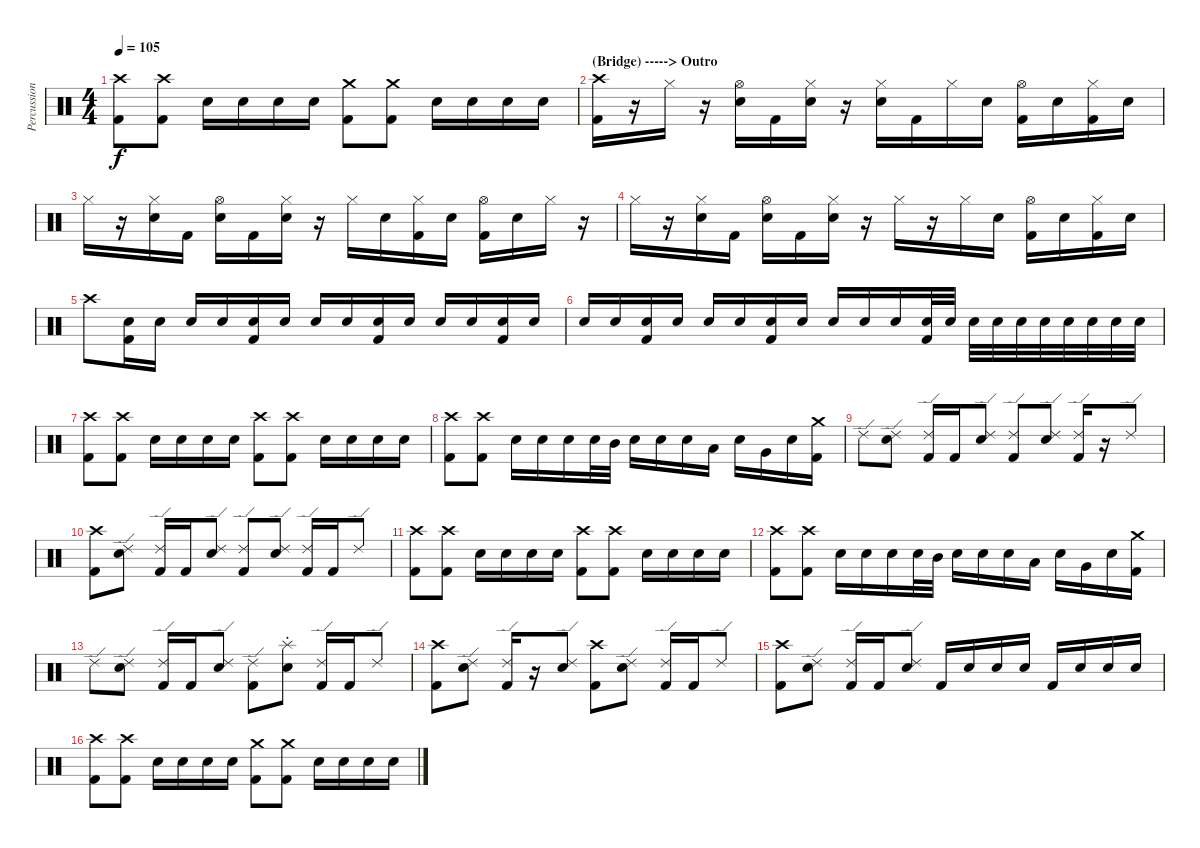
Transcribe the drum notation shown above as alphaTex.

\track ("Percussion" "Percussion") {instrument percussion}
\staff {score}
\articulation defaults
\ts (4 4)
\tempo 105
\clef neutral
\ks c
("Crash high (hit)" "Kick (hit) 2").8{dy f} ("Crash high (hit)" "Kick (hit) 2").8 "Electric Snare (hit)".16 "Electric Snare (hit)".16 "Electric Snare (hit)".16 "Electric Snare (hit)".16 ("Crash medium (hit)" "Kick (hit) 2").8 ("Crash medium (hit)" "Kick (hit) 2").8 "Electric Snare (hit)".16 "Electric Snare (hit)".16 "Electric Snare (hit)".16 "Electric Snare (hit)".16 |
\section ("" "(Bridge) -----> Outro")
("Crash high (hit)" "Kick (hit) 2").16 r.16 "Hi-Hat (closed)".16 r.16 ("Hi-Hat (open)" "Electric Snare (hit)").16 "Kick (hit) 2".16 ("Hi-Hat (closed)" "Electric Snare (hit)").16 r.16 ("Hi-Hat (closed)" "Electric Snare (hit)").16 "Kick (hit) 2".16 "Hi-Hat (closed)".16 "Electric Snare (hit)".16 ("Hi-Hat (open)" "Kick (hit) 2").16 "Electric Snare (hit)".16 ("Hi-Hat (closed)" "Kick (hit) 2").16 "Electric Snare (hit)".16 |
"Hi-Hat (closed)".16 r.16 ("Hi-Hat (closed)" "Electric Snare (hit)").16 "Kick (hit) 2".16 ("Hi-Hat (open)" "Electric Snare (hit)").16 "Kick (hit) 2".16 ("Hi-Hat (closed)" "Electric Snare (hit)").16 r.16 "Hi-Hat (closed)".16 "Electric Snare (hit)".16 ("Hi-Hat (closed)" "Kick (hit) 2").16 "Electric Snare (hit)".16 ("Hi-Hat (open)" "Kick (hit) 2").16 "Electric Snare (hit)".16 "Hi-Hat (closed)".16 r.16 |
"Hi-Hat (closed)".16 r.16 ("Hi-Hat (closed)" "Electric Snare (hit)").16 "Kick (hit) 2".16 ("Hi-Hat (open)" "Electric Snare (hit)").16 "Kick (hit) 2".16 ("Hi-Hat (closed)" "Electric Snare (hit)").16 r.16 "Hi-Hat (closed)".16 r.16 "Hi-Hat (closed)".16 "Electric Snare (hit)".16 ("Hi-Hat (open)" "Kick (hit) 2").16 "Electric Snare (hit)".16 ("Hi-Hat (closed)" "Kick (hit) 2").16 "Electric Snare (hit)".16 |
"Crash high (hit)".8 ("Electric Snare (hit)" "Kick (hit) 2").16 "Electric Snare (hit)".16 "Electric Snare (hit)".16 "Electric Snare (hit)".16 ("Electric Snare (hit)" "Kick (hit) 2").16 "Electric Snare (hit)".16 "Electric Snare (hit)".16 "Electric Snare (hit)".16 ("Electric Snare (hit)" "Kick (hit) 2").16 "Electric Snare (hit)".16 "Electric Snare (hit)".16 "Electric Snare (hit)".16 ("Electric Snare (hit)" "Kick (hit) 2").16 "Electric Snare (hit)".16 |
"Electric Snare (hit)".16 "Electric Snare (hit)".16 ("Electric Snare (hit)" "Kick (hit) 2").16 "Electric Snare (hit)".16 "Electric Snare (hit)".16 "Electric Snare (hit)".16 ("Electric Snare (hit)" "Kick (hit) 2").16 "Electric Snare (hit)".16 "Electric Snare (hit)".16 "Electric Snare (hit)".16 "Electric Snare (hit)".16 ("Electric Snare (hit)" "Kick (hit) 2").32 "Electric Snare (hit)".32 "Electric Snare (hit)".32 "Electric Snare (hit)".32 "Electric Snare (hit)".32 "Electric Snare (hit)".32 "Electric Snare (hit)".32 "Electric Snare (hit)".32 "Electric Snare (hit)".32 "Electric Snare (hit)".32 |
("Crash high (hit)" "Kick (hit) 2").8 ("Crash high (hit)" "Kick (hit) 2").8 "Electric Snare (hit)".16 "Electric Snare (hit)".16 "Electric Snare (hit)".16 "Electric Snare (hit)".16 ("Crash high (hit)" "Kick (hit) 2").8 ("Crash high (hit)" "Kick (hit) 2").8 "Electric Snare (hit)".16 "Electric Snare (hit)".16 "Electric Snare (hit)".16 "Electric Snare (hit)".16 |
("Crash high (hit)" "Kick (hit) 2").8 ("Crash high (hit)" "Kick (hit) 2").8 "Electric Snare (hit)".16 "Electric Snare (hit)".16 "Electric Snare (hit)".16 "Electric Snare (hit)".32 "Mid Tom (hit)".32 "Electric Snare (hit)".16 "Electric Snare (hit)".16 "Electric Snare (hit)".16 "Low Tom (hit)".16 "Electric Snare (hit)".16 "Very Low Tom (hit)".16 "Electric Snare (hit)".16 ("Crash medium (hit)" "Kick (hit) 2").16 |
"Ride (edge) 2".8 ("Ride (edge) 2" "Electric Snare (hit)").8 ("Ride (edge) 2" "Kick (hit) 2").16 "Kick (hit) 2".16 ("Ride (edge) 2" "Electric Snare (hit)").8 ("Ride (edge) 2" "Kick (hit) 2").8 ("Ride (edge) 2" "Electric Snare (hit)").8 ("Ride (edge) 2" "Kick (hit) 2").16 r.16 "Ride (edge) 2".8 |
("Crash high (hit)" "Kick (hit) 2").8 ("Ride (edge) 2" "Electric Snare (hit)").8 ("Ride (edge) 2" "Kick (hit) 2").16 "Kick (hit) 2".16 ("Ride (edge) 2" "Electric Snare (hit)").8 ("Ride (edge) 2" "Kick (hit) 2").8 ("Ride (edge) 2" "Electric Snare (hit)").8 ("Ride (edge) 2" "Kick (hit) 2").16 "Kick (hit) 2".16 "Ride (edge) 2".8 |
("Crash high (hit)" "Kick (hit) 2").8 ("Crash high (hit)" "Kick (hit) 2").8 "Electric Snare (hit)".16 "Electric Snare (hit)".16 "Electric Snare (hit)".16 "Electric Snare (hit)".16 ("Crash high (hit)" "Kick (hit) 2").8 ("Crash high (hit)" "Kick (hit) 2").8 "Electric Snare (hit)".16 "Electric Snare (hit)".16 "Electric Snare (hit)".16 "Electric Snare (hit)".16 |
("Crash high (hit)" "Kick (hit) 2").8 ("Crash high (hit)" "Kick (hit) 2").8 "Electric Snare (hit)".16 "Electric Snare (hit)".16 "Electric Snare (hit)".16 "Electric Snare (hit)".32 "Mid Tom (hit)".32 "Electric Snare (hit)".16 "Electric Snare (hit)".16 "Electric Snare (hit)".16 "Low Tom (hit)".16 "Electric Snare (hit)".16 "Very Low Tom (hit)".16 "Electric Snare (hit)".16 ("Crash medium (hit)" "Kick (hit) 2").16 |
"Ride (edge) 2".8 ("Ride (edge) 2" "Electric Snare (hit)").8 ("Ride (edge) 2" "Kick (hit) 2").16 "Kick (hit) 2".16 ("Ride (edge) 2" "Electric Snare (hit)").8 ("Ride (edge) 2" "Kick (hit) 2").8 ("Splash (choke)" "Electric Snare (hit)").8 ("Ride (edge) 2" "Kick (hit) 2").16 "Kick (hit) 2".16 "Ride (edge) 2".8 |
("Crash high (hit)" "Kick (hit) 2").8 ("Ride (edge) 2" "Electric Snare (hit)").8 ("Ride (edge) 2" "Kick (hit) 2").16 r.16 ("Ride (edge) 2" "Electric Snare (hit)").8 ("Crash high (hit)" "Kick (hit) 2").8 ("Ride (edge) 2" "Electric Snare (hit)").8 ("Ride (edge) 2" "Kick (hit) 2").16 "Kick (hit) 2".16 "Ride (edge) 2".8 |
("Crash high (hit)" "Kick (hit) 2").8 ("Ride (edge) 2" "Electric Snare (hit)").8 ("Ride (edge) 2" "Kick (hit) 2").16 "Kick (hit) 2".16 ("Ride (edge) 2" "Electric Snare (hit)").8 "Kick (hit) 2".16 "Electric Snare (hit)".16 "Electric Snare (hit)".16 "Electric Snare (hit)".16 "Kick (hit) 2".16 "Electric Snare (hit)".16 "Electric Snare (hit)".16 "Electric Snare (hit)".16 |
("Crash high (hit)" "Kick (hit) 2").8 ("Crash high (hit)" "Kick (hit) 2").8 "Electric Snare (hit)".16 "Electric Snare (hit)".16 "Electric Snare (hit)".16 "Electric Snare (hit)".16 ("Crash medium (hit)" "Kick (hit) 2").8 ("Crash medium (hit)" "Kick (hit) 2").8 "Electric Snare (hit)".16 "Electric Snare (hit)".16 "Electric Snare (hit)".16 "Electric Snare (hit)".16
